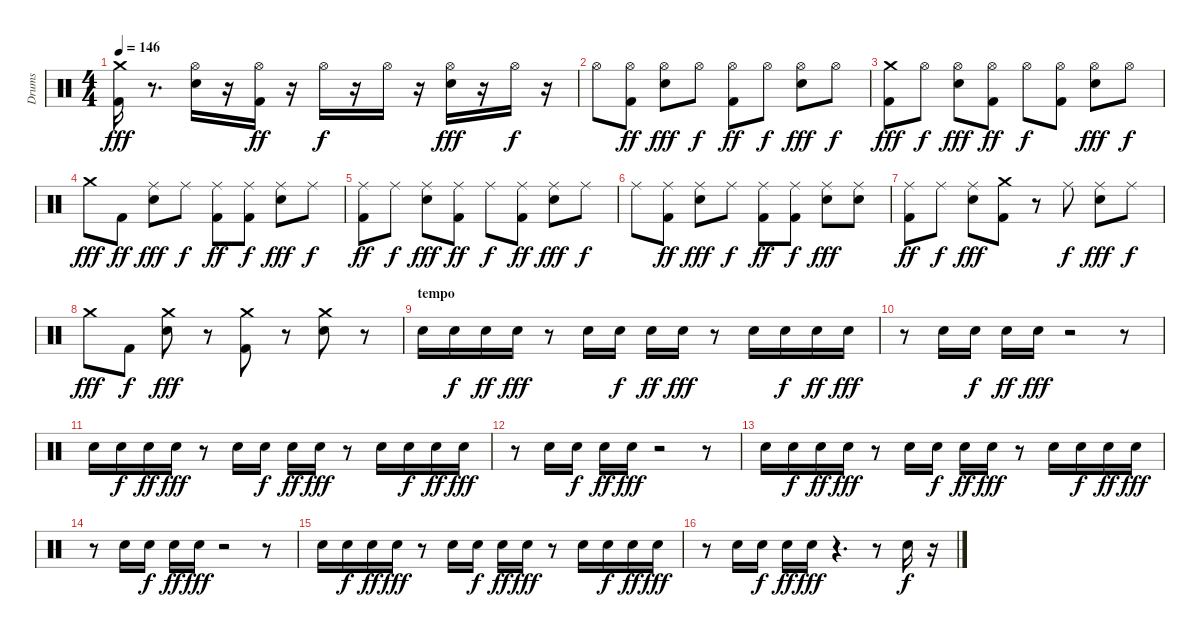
\track ("Drums" "Drums") {instrument percussion}
\staff {score}
\articulation defaults
\ts (4 4)
\tempo 146
\clef neutral
\ks c
("Kick (hit) 2" "Crash medium (hit)").16{dy fff} r.8{d} ("Snare (hit) 2" "Hi-Hat (open)").16 r.16 ("Kick (hit) 2" "Hi-Hat (open)").16{dy ff} r.16 "Hi-Hat (open)".16{dy f} r.16 "Hi-Hat (open)".16 r.16 ("Snare (hit) 2" "Hi-Hat (open)").16{dy fff} r.16 "Hi-Hat (open)".16{dy f} r.16 |
"Hi-Hat (open)".8 ("Kick (hit) 2" "Hi-Hat (open)").8{dy ff} ("Snare (hit) 2" "Hi-Hat (open)").8{dy fff} "Hi-Hat (open)".8{dy f} ("Kick (hit) 2" "Hi-Hat (open)").8{dy ff} "Hi-Hat (open)".8{dy f} ("Snare (hit) 2" "Hi-Hat (open)").8{dy fff} "Hi-Hat (open)".8{dy f} |
("Kick (hit) 2" "Crash medium (hit)").8{dy fff} "Hi-Hat (open)".8{dy f} ("Snare (hit) 2" "Hi-Hat (open)").8{dy fff} ("Kick (hit) 2" "Hi-Hat (open)").8{dy ff} "Hi-Hat (open)".8{dy f} ("Kick (hit) 2" "Hi-Hat (open)").8 ("Snare (hit) 2" "Hi-Hat (open)").8{dy fff} "Hi-Hat (open)".8{dy f} |
"Crash medium (hit)".8{dy fff} "Kick (hit) 2".8{dy ff} ("Snare (hit) 2" "Ride (middle)").8{dy fff} "Ride (middle)".8{dy f} ("Kick (hit) 2" "Ride (middle)").8{dy ff} ("Kick (hit) 2" "Ride (middle)").8{dy f} ("Snare (hit) 2" "Ride (middle)").8{dy fff} "Ride (middle)".8{dy f} |
("Kick (hit) 2" "Ride (middle)").8{dy ff} "Ride (middle)".8{dy f} ("Snare (hit) 2" "Ride (middle)").8{dy fff} ("Kick (hit) 2" "Ride (middle)").8{dy ff} "Ride (middle)".8{dy f} ("Kick (hit) 2" "Ride (middle)").8{dy ff} ("Snare (hit) 2" "Ride (middle)").8{dy fff} "Ride (middle)".8{dy f} |
"Ride (middle)".8 ("Kick (hit) 2" "Ride (middle)").8{dy ff} ("Snare (hit) 2" "Ride (middle)").8{dy fff} "Ride (middle)".8{dy f} ("Kick (hit) 2" "Ride (middle)").8{dy ff} ("Kick (hit) 2" "Ride (middle)").8{dy f} ("Snare (hit) 2" "Ride (middle)").8{dy fff} ("Snare (hit) 2" "Ride (middle)").8 |
("Kick (hit) 2" "Ride (middle)").8{dy ff} "Ride (middle)".8{dy f} ("Snare (hit) 2" "Ride (middle)").8{dy fff} ("Kick (hit) 2" "Crash medium (hit)").8 r.8 "Ride (middle)".8{dy f} ("Snare (hit) 2" "Ride (middle)").8{dy fff} "Ride (middle)".8{dy f} |
"Crash medium (hit)".8{dy fff} "Kick (hit) 2".8{dy f} ("Snare (hit) 2" "Crash medium (hit)").8{dy fff} r.8 ("Kick (hit) 2" "Crash medium (hit)").8 r.8 ("Snare (hit) 2" "Crash medium (hit)").8 r.8 |
\section ("" "tempo")
"Snare (hit) 2".16 "Snare (hit) 2".16{dy f} "Snare (hit) 2".16{dy ff} "Snare (hit) 2".16{dy fff} r.8 "Snare (hit) 2".16 "Snare (hit) 2".16{dy f} "Snare (hit) 2".16{dy ff} "Snare (hit) 2".16{dy fff} r.8 "Snare (hit) 2".16 "Snare (hit) 2".16{dy f} "Snare (hit) 2".16{dy ff} "Snare (hit) 2".16{dy fff} |
r.8 "Snare (hit) 2".16 "Snare (hit) 2".16{dy f} "Snare (hit) 2".16{dy ff} "Snare (hit) 2".16{dy fff} r.2 r.8 |
"Snare (hit) 2".16 "Snare (hit) 2".16{dy f} "Snare (hit) 2".16{dy ff} "Snare (hit) 2".16{dy fff} r.8 "Snare (hit) 2".16 "Snare (hit) 2".16{dy f} "Snare (hit) 2".16{dy ff} "Snare (hit) 2".16{dy fff} r.8 "Snare (hit) 2".16 "Snare (hit) 2".16{dy f} "Snare (hit) 2".16{dy ff} "Snare (hit) 2".16{dy fff} |
r.8 "Snare (hit) 2".16 "Snare (hit) 2".16{dy f} "Snare (hit) 2".16{dy ff} "Snare (hit) 2".16{dy fff} r.2 r.8 |
"Snare (hit) 2".16 "Snare (hit) 2".16{dy f} "Snare (hit) 2".16{dy ff} "Snare (hit) 2".16{dy fff} r.8 "Snare (hit) 2".16 "Snare (hit) 2".16{dy f} "Snare (hit) 2".16{dy ff} "Snare (hit) 2".16{dy fff} r.8 "Snare (hit) 2".16 "Snare (hit) 2".16{dy f} "Snare (hit) 2".16{dy ff} "Snare (hit) 2".16{dy fff} |
r.8 "Snare (hit) 2".16 "Snare (hit) 2".16{dy f} "Snare (hit) 2".16{dy ff} "Snare (hit) 2".16{dy fff} r.2 r.8 |
"Snare (hit) 2".16 "Snare (hit) 2".16{dy f} "Snare (hit) 2".16{dy ff} "Snare (hit) 2".16{dy fff} r.8 "Snare (hit) 2".16 "Snare (hit) 2".16{dy f} "Snare (hit) 2".16{dy ff} "Snare (hit) 2".16{dy fff} r.8 "Snare (hit) 2".16 "Snare (hit) 2".16{dy f} "Snare (hit) 2".16{dy ff} "Snare (hit) 2".16{dy fff} |
r.8 "Snare (hit) 2".16 "Snare (hit) 2".16{dy f} "Snare (hit) 2".16{dy ff} "Snare (hit) 2".16{dy fff} r.4{d} r.8 "Snare (hit) 2".16{dy f} r.16
